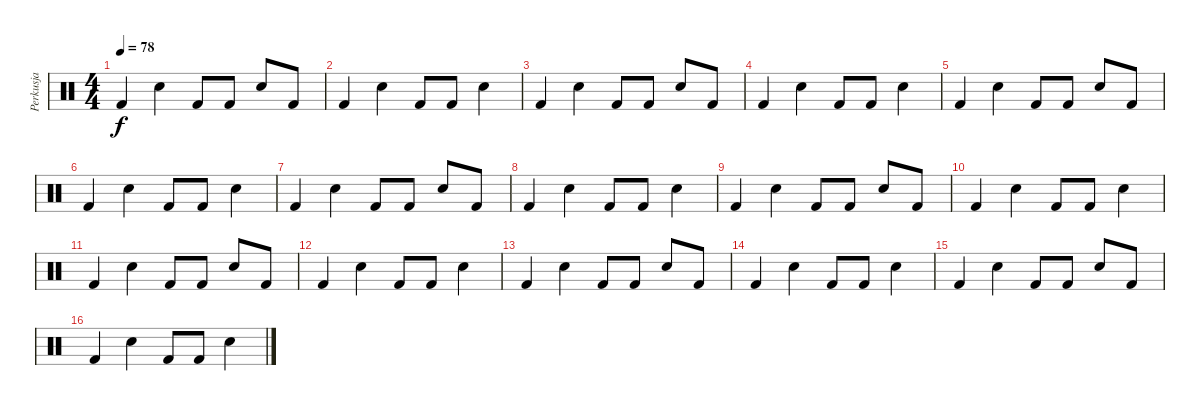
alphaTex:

\track ("Perkusja" "Perkusja") {instrument percussion}
\staff {score}
\articulation defaults
\ts (4 4)
\tempo 78
\clef neutral
\ks c "Kick (hit) 2".4{dy f} "Snare (hit) 2".4 "Kick (hit) 2".8 "Kick (hit) 2".8 "Snare (hit) 2".8 "Kick (hit) 2".8
|
"Kick (hit) 2".4 "Snare (hit) 2".4 "Kick (hit) 2".8 "Kick (hit) 2".8 "Snare (hit) 2".4 |
"Kick (hit) 2".4 "Snare (hit) 2".4 "Kick (hit) 2".8 "Kick (hit) 2".8 "Snare (hit) 2".8 "Kick (hit) 2".8 |
"Kick (hit) 2".4 "Snare (hit) 2".4 "Kick (hit) 2".8 "Kick (hit) 2".8 "Snare (hit) 2".4 |
"Kick (hit) 2".4 "Snare (hit) 2".4 "Kick (hit) 2".8 "Kick (hit) 2".8 "Snare (hit) 2".8 "Kick (hit) 2".8 |
"Kick (hit) 2".4 "Snare (hit) 2".4 "Kick (hit) 2".8 "Kick (hit) 2".8 "Snare (hit) 2".4 |
"Kick (hit) 2".4 "Snare (hit) 2".4 "Kick (hit) 2".8 "Kick (hit) 2".8 "Snare (hit) 2".8 "Kick (hit) 2".8 |
"Kick (hit) 2".4 "Snare (hit) 2".4 "Kick (hit) 2".8 "Kick (hit) 2".8 "Snare (hit) 2".4 |
"Kick (hit) 2".4 "Snare (hit) 2".4 "Kick (hit) 2".8 "Kick (hit) 2".8 "Snare (hit) 2".8 "Kick (hit) 2".8 |
"Kick (hit) 2".4 "Snare (hit) 2".4 "Kick (hit) 2".8 "Kick (hit) 2".8 "Snare (hit) 2".4 |
"Kick (hit) 2".4 "Snare (hit) 2".4 "Kick (hit) 2".8 "Kick (hit) 2".8 "Snare (hit) 2".8 "Kick (hit) 2".8 |
"Kick (hit) 2".4 "Snare (hit) 2".4 "Kick (hit) 2".8 "Kick (hit) 2".8 "Snare (hit) 2".4 |
"Kick (hit) 2".4 "Snare (hit) 2".4 "Kick (hit) 2".8 "Kick (hit) 2".8 "Snare (hit) 2".8 "Kick (hit) 2".8 |
"Kick (hit) 2".4 "Snare (hit) 2".4 "Kick (hit) 2".8 "Kick (hit) 2".8 "Snare (hit) 2".4 |
"Kick (hit) 2".4 "Snare (hit) 2".4 "Kick (hit) 2".8 "Kick (hit) 2".8 "Snare (hit) 2".8 "Kick (hit) 2".8 |
"Kick (hit) 2".4 "Snare (hit) 2".4 "Kick (hit) 2".8 "Kick (hit) 2".8 "Snare (hit) 2".4
